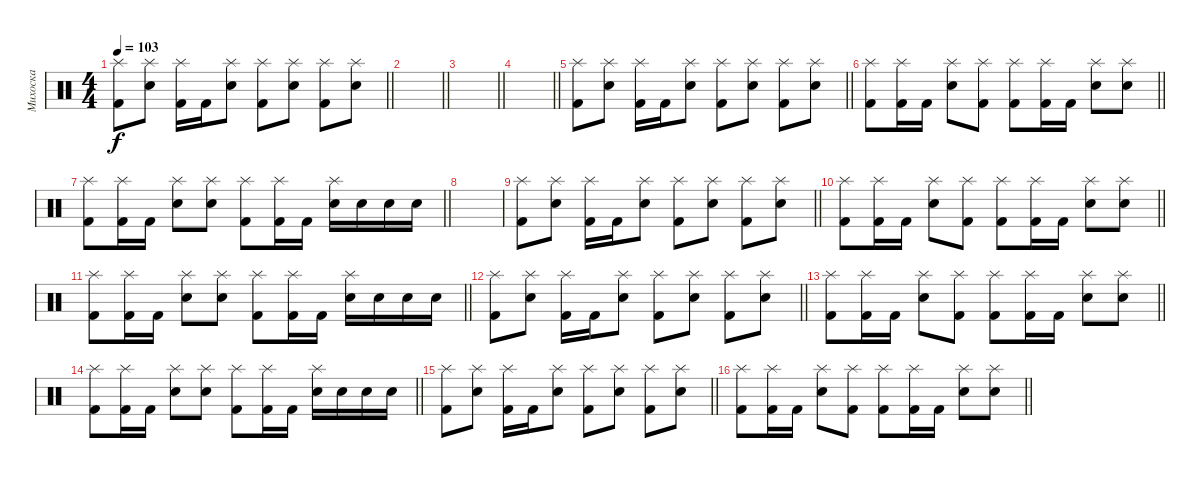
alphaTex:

\track ("Михоска" "Михоска") {instrument percussion}
\staff {score}
\articulation defaults
\ts (4 4)
\tempo 103
\clef neutral
\barLineRight lightlight
\ks c
("Splash (hit)" "Kick (hit) 2").8{dy f} ("Splash (hit)" "Snare (hit) 2").8 ("Splash (hit)" "Kick (hit) 2").16 "Kick (hit) 2".16 ("Splash (hit)" "Snare (hit) 2").8 ("Splash (hit)" "Kick (hit) 2").8 ("Splash (hit)" "Snare (hit) 2").8 ("Splash (hit)" "Kick (hit) 2").8 ("Splash (hit)" "Snare (hit) 2").8 |
\barLineRight lightlight
|
\barLineRight lightlight
|
\barLineRight lightlight
|
\barLineRight lightlight
("Splash (hit)" "Kick (hit) 2").8 ("Splash (hit)" "Snare (hit) 2").8 ("Splash (hit)" "Kick (hit) 2").16 "Kick (hit) 2".16 ("Splash (hit)" "Snare (hit) 2").8 ("Splash (hit)" "Kick (hit) 2").8 ("Splash (hit)" "Snare (hit) 2").8 ("Splash (hit)" "Kick (hit) 2").8 ("Splash (hit)" "Snare (hit) 2").8 |
\barLineRight lightlight
("Splash (hit)" "Kick (hit) 2").8 ("Splash (hit)" "Kick (hit) 2").16 "Kick (hit) 2".16 ("Splash (hit)" "Snare (hit) 2").8 ("Splash (hit)" "Kick (hit) 2").8 ("Splash (hit)" "Kick (hit) 2").8 ("Splash (hit)" "Kick (hit) 2").16 "Kick (hit) 2".16 ("Splash (hit)" "Snare (hit) 2").8 ("Splash (hit)" "Snare (hit) 2").8 |
\barLineRight lightlight
("Splash (hit)" "Kick (hit) 2").8 ("Splash (hit)" "Kick (hit) 2").16 "Kick (hit) 2".16 ("Splash (hit)" "Snare (hit) 2").8 ("Splash (hit)" "Snare (hit) 2").8 ("Splash (hit)" "Kick (hit) 2").8 ("Splash (hit)" "Kick (hit) 2").16 "Kick (hit) 2".16 ("Splash (hit)" "Snare (hit) 2").16 "Snare (hit) 2".16 "Snare (hit) 2".16 "Snare (hit) 2".16 |
|
\barLineRight lightlight
("Splash (hit)" "Kick (hit) 2").8 ("Splash (hit)" "Snare (hit) 2").8 ("Splash (hit)" "Kick (hit) 2").16 "Kick (hit) 2".16 ("Splash (hit)" "Snare (hit) 2").8 ("Splash (hit)" "Kick (hit) 2").8 ("Splash (hit)" "Snare (hit) 2").8 ("Splash (hit)" "Kick (hit) 2").8 ("Splash (hit)" "Snare (hit) 2").8 |
\barLineRight lightlight
("Splash (hit)" "Kick (hit) 2").8 ("Splash (hit)" "Kick (hit) 2").16 "Kick (hit) 2".16 ("Splash (hit)" "Snare (hit) 2").8 ("Splash (hit)" "Kick (hit) 2").8 ("Splash (hit)" "Kick (hit) 2").8 ("Splash (hit)" "Kick (hit) 2").16 "Kick (hit) 2".16 ("Splash (hit)" "Snare (hit) 2").8 ("Splash (hit)" "Snare (hit) 2").8 |
\barLineRight lightlight
("Splash (hit)" "Kick (hit) 2").8 ("Splash (hit)" "Kick (hit) 2").16 "Kick (hit) 2".16 ("Splash (hit)" "Snare (hit) 2").8 ("Splash (hit)" "Snare (hit) 2").8 ("Splash (hit)" "Kick (hit) 2").8 ("Splash (hit)" "Kick (hit) 2").16 "Kick (hit) 2".16 ("Splash (hit)" "Snare (hit) 2").16 "Snare (hit) 2".16 "Snare (hit) 2".16 "Snare (hit) 2".16 |
\barLineRight lightlight
("Splash (hit)" "Kick (hit) 2").8 ("Splash (hit)" "Snare (hit) 2").8 ("Splash (hit)" "Kick (hit) 2").16 "Kick (hit) 2".16 ("Splash (hit)" "Snare (hit) 2").8 ("Splash (hit)" "Kick (hit) 2").8 ("Splash (hit)" "Snare (hit) 2").8 ("Splash (hit)" "Kick (hit) 2").8 ("Splash (hit)" "Snare (hit) 2").8 |
\barLineRight lightlight
("Splash (hit)" "Kick (hit) 2").8 ("Splash (hit)" "Kick (hit) 2").16 "Kick (hit) 2".16 ("Splash (hit)" "Snare (hit) 2").8 ("Splash (hit)" "Kick (hit) 2").8 ("Splash (hit)" "Kick (hit) 2").8 ("Splash (hit)" "Kick (hit) 2").16 "Kick (hit) 2".16 ("Splash (hit)" "Snare (hit) 2").8 ("Splash (hit)" "Snare (hit) 2").8 |
\barLineRight lightlight
("Splash (hit)" "Kick (hit) 2").8 ("Splash (hit)" "Kick (hit) 2").16 "Kick (hit) 2".16 ("Splash (hit)" "Snare (hit) 2").8 ("Splash (hit)" "Snare (hit) 2").8 ("Splash (hit)" "Kick (hit) 2").8 ("Splash (hit)" "Kick (hit) 2").16 "Kick (hit) 2".16 ("Splash (hit)" "Snare (hit) 2").16 "Snare (hit) 2".16 "Snare (hit) 2".16 "Snare (hit) 2".16 |
\barLineRight lightlight
("Splash (hit)" "Kick (hit) 2").8 ("Splash (hit)" "Snare (hit) 2").8 ("Splash (hit)" "Kick (hit) 2").16 "Kick (hit) 2".16 ("Splash (hit)" "Snare (hit) 2").8 ("Splash (hit)" "Kick (hit) 2").8 ("Splash (hit)" "Snare (hit) 2").8 ("Splash (hit)" "Kick (hit) 2").8 ("Splash (hit)" "Snare (hit) 2").8 |
\barLineRight lightlight
("Splash (hit)" "Kick (hit) 2").8 ("Splash (hit)" "Kick (hit) 2").16 "Kick (hit) 2".16 ("Splash (hit)" "Snare (hit) 2").8 ("Splash (hit)" "Kick (hit) 2").8 ("Splash (hit)" "Kick (hit) 2").8 ("Splash (hit)" "Kick (hit) 2").16 "Kick (hit) 2".16 ("Splash (hit)" "Snare (hit) 2").8 ("Splash (hit)" "Snare (hit) 2").8
